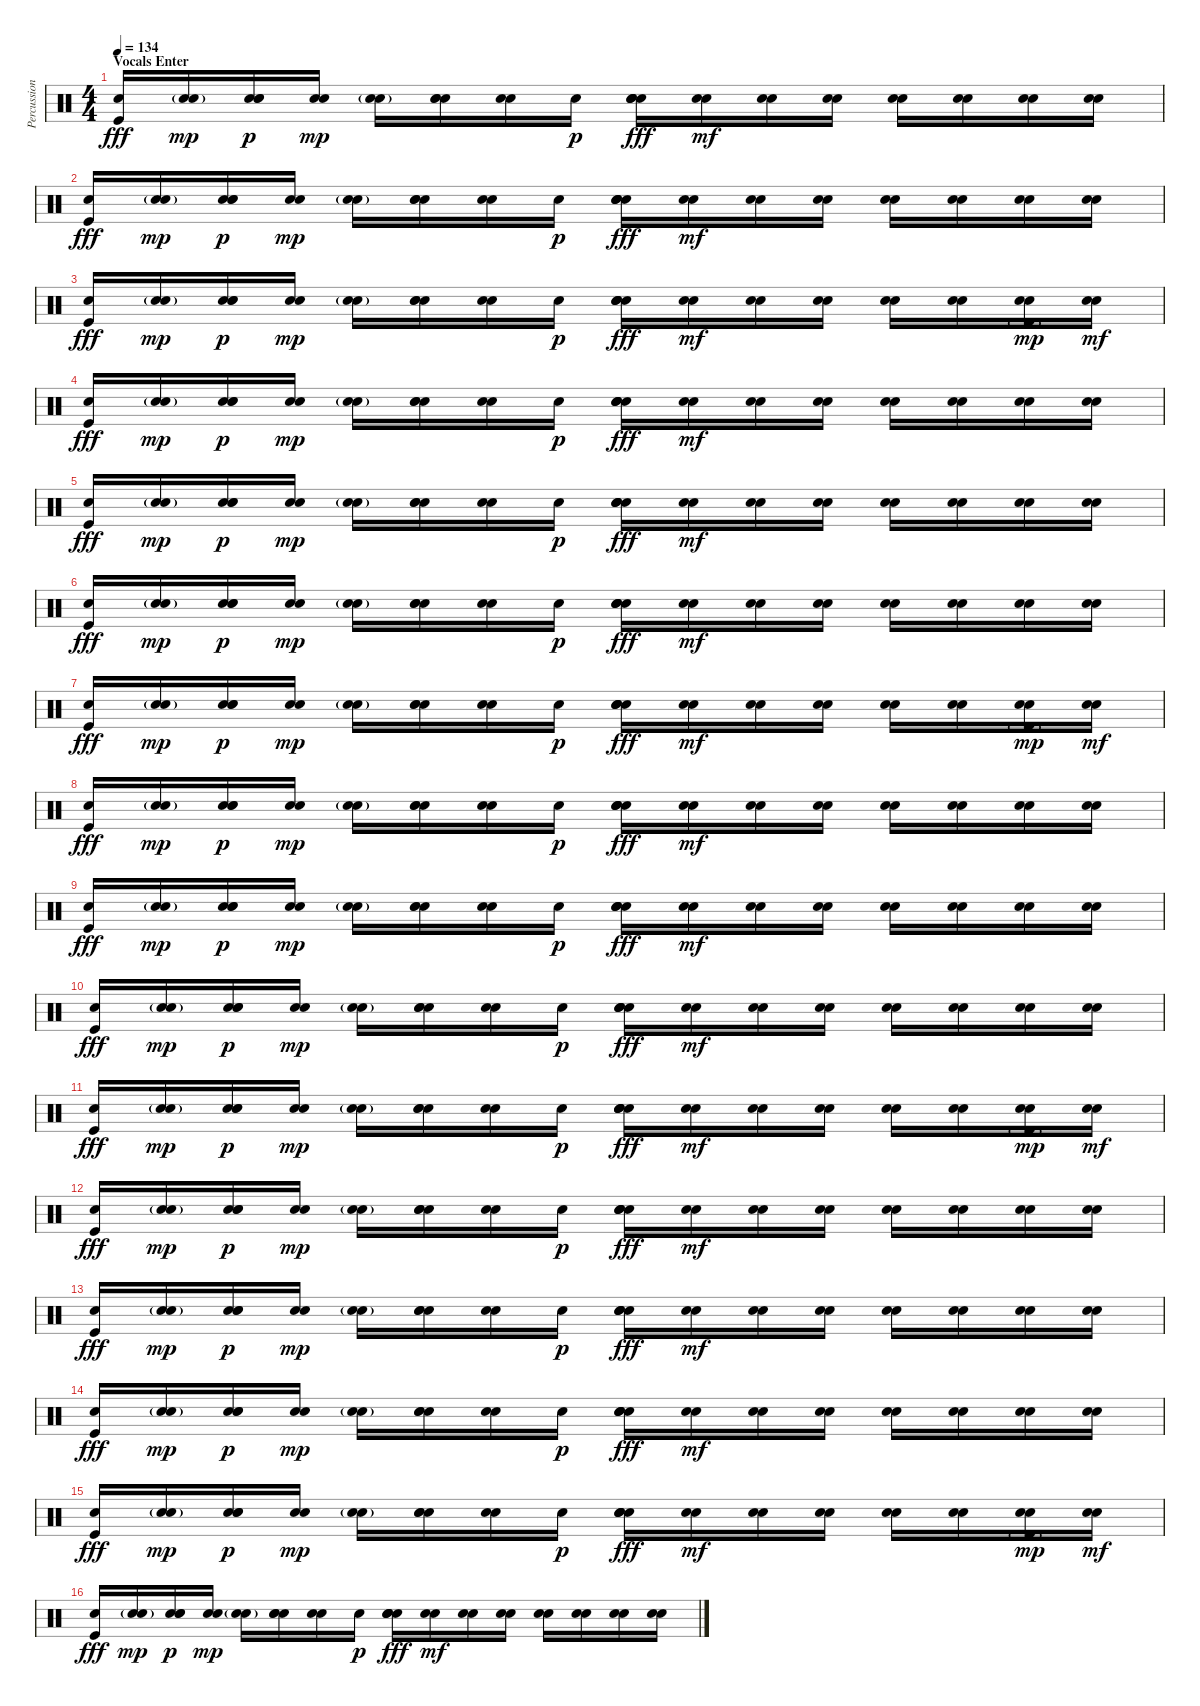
\track ("Percussion" "Percussion") {instrument percussion}
\staff {score}
\articulation defaults
\ts (4 4)
\section ("" "Vocals Enter")
\tempo 134
\clef neutral
\ks c
("Electric Snare (hit)" "Kick (hit)").16{dy fff} ("Electric Snare (hit)" "Electric Snare (hit)"{g}).16{dy mp} ("Electric Snare (hit)" "Electric Snare (hit)" "Snare (hit) 2").16{dy p} ("Electric Snare (hit)" "Snare (hit) 2").16{dy mp} ("Electric Snare (hit)" "Electric Snare (hit)"{g}).16 ("Electric Snare (hit)" "Electric Snare (hit)" "Snare (hit) 2").16 ("Electric Snare (hit)" "Snare (hit) 2").16 "Electric Snare (hit)".16{dy p} ("Electric Snare (hit)" "Snare (hit) 2" "Snare (hit) 2" "Snare (hit) 2").16{dy fff} ("Electric Snare (hit)" "Snare (hit) 2").16{dy mf} ("Electric Snare (hit)" "Snare (hit) 2").16 ("Electric Snare (hit)" "Snare (hit) 2").16 ("Electric Snare (hit)" "Snare (hit) 2").16 ("Electric Snare (hit)" "Snare (hit) 2").16 ("Electric Snare (hit)" "Snare (hit) 2").16 ("Electric Snare (hit)" "Snare (hit) 2").16 |
("Electric Snare (hit)" "Kick (hit)").16{dy fff} ("Electric Snare (hit)" "Electric Snare (hit)"{g}).16{dy mp} ("Electric Snare (hit)" "Electric Snare (hit)" "Snare (hit) 2").16{dy p} ("Electric Snare (hit)" "Snare (hit) 2").16{dy mp} ("Electric Snare (hit)" "Electric Snare (hit)"{g}).16 ("Electric Snare (hit)" "Electric Snare (hit)" "Snare (hit) 2").16 ("Electric Snare (hit)" "Snare (hit) 2").16 "Electric Snare (hit)".16{dy p} ("Electric Snare (hit)" "Snare (hit) 2" "Snare (hit) 2" "Snare (hit) 2").16{dy fff} ("Electric Snare (hit)" "Snare (hit) 2").16{dy mf} ("Electric Snare (hit)" "Snare (hit) 2").16 ("Electric Snare (hit)" "Snare (hit) 2").16 ("Electric Snare (hit)" "Snare (hit) 2").16 ("Electric Snare (hit)" "Snare (hit) 2").16 ("Electric Snare (hit)" "Snare (hit) 2").16 ("Electric Snare (hit)" "Snare (hit) 2").16 |
("Electric Snare (hit)" "Kick (hit)").16{dy fff} ("Electric Snare (hit)" "Electric Snare (hit)"{g}).16{dy mp} ("Electric Snare (hit)" "Electric Snare (hit)" "Snare (hit) 2").16{dy p} ("Electric Snare (hit)" "Snare (hit) 2").16{dy mp} ("Electric Snare (hit)" "Electric Snare (hit)"{g}).16 ("Electric Snare (hit)" "Electric Snare (hit)" "Snare (hit) 2").16 ("Electric Snare (hit)" "Snare (hit) 2").16 "Electric Snare (hit)".16{dy p} ("Electric Snare (hit)" "Snare (hit) 2" "Snare (hit) 2" "Snare (hit) 2").16{dy fff} ("Electric Snare (hit)" "Snare (hit) 2").16{dy mf} ("Electric Snare (hit)" "Snare (hit) 2").16 ("Electric Snare (hit)" "Snare (hit) 2").16 ("Electric Snare (hit)" "Snare (hit) 2").16 ("Electric Snare (hit)" "Snare (hit) 2").16 ("Electric Snare (hit)" "Snare (hit) 2" "Kick (hit)"{g}).16{dy mp} ("Electric Snare (hit)" "Snare (hit) 2").16{dy mf} |
("Electric Snare (hit)" "Kick (hit)").16{dy fff} ("Electric Snare (hit)" "Electric Snare (hit)"{g}).16{dy mp} ("Electric Snare (hit)" "Electric Snare (hit)" "Snare (hit) 2").16{dy p} ("Electric Snare (hit)" "Snare (hit) 2").16{dy mp} ("Electric Snare (hit)" "Electric Snare (hit)"{g}).16 ("Electric Snare (hit)" "Electric Snare (hit)" "Snare (hit) 2").16 ("Electric Snare (hit)" "Snare (hit) 2").16 "Electric Snare (hit)".16{dy p} ("Electric Snare (hit)" "Snare (hit) 2" "Snare (hit) 2" "Snare (hit) 2").16{dy fff} ("Electric Snare (hit)" "Snare (hit) 2").16{dy mf} ("Electric Snare (hit)" "Snare (hit) 2").16 ("Electric Snare (hit)" "Snare (hit) 2").16 ("Electric Snare (hit)" "Snare (hit) 2").16 ("Electric Snare (hit)" "Snare (hit) 2").16 ("Electric Snare (hit)" "Snare (hit) 2").16 ("Electric Snare (hit)" "Snare (hit) 2").16 |
("Electric Snare (hit)" "Kick (hit)").16{dy fff} ("Electric Snare (hit)" "Electric Snare (hit)"{g}).16{dy mp} ("Electric Snare (hit)" "Electric Snare (hit)" "Snare (hit) 2").16{dy p} ("Electric Snare (hit)" "Snare (hit) 2").16{dy mp} ("Electric Snare (hit)" "Electric Snare (hit)"{g}).16 ("Electric Snare (hit)" "Electric Snare (hit)" "Snare (hit) 2").16 ("Electric Snare (hit)" "Snare (hit) 2").16 "Electric Snare (hit)".16{dy p} ("Electric Snare (hit)" "Snare (hit) 2" "Snare (hit) 2" "Snare (hit) 2").16{dy fff} ("Electric Snare (hit)" "Snare (hit) 2").16{dy mf} ("Electric Snare (hit)" "Snare (hit) 2").16 ("Electric Snare (hit)" "Snare (hit) 2").16 ("Electric Snare (hit)" "Snare (hit) 2").16 ("Electric Snare (hit)" "Snare (hit) 2").16 ("Electric Snare (hit)" "Snare (hit) 2").16 ("Electric Snare (hit)" "Snare (hit) 2").16 |
("Electric Snare (hit)" "Kick (hit)").16{dy fff} ("Electric Snare (hit)" "Electric Snare (hit)"{g}).16{dy mp} ("Electric Snare (hit)" "Electric Snare (hit)" "Snare (hit) 2").16{dy p} ("Electric Snare (hit)" "Snare (hit) 2").16{dy mp} ("Electric Snare (hit)" "Electric Snare (hit)"{g}).16 ("Electric Snare (hit)" "Electric Snare (hit)" "Snare (hit) 2").16 ("Electric Snare (hit)" "Snare (hit) 2").16 "Electric Snare (hit)".16{dy p} ("Electric Snare (hit)" "Snare (hit) 2" "Snare (hit) 2" "Snare (hit) 2").16{dy fff} ("Electric Snare (hit)" "Snare (hit) 2").16{dy mf} ("Electric Snare (hit)" "Snare (hit) 2").16 ("Electric Snare (hit)" "Snare (hit) 2").16 ("Electric Snare (hit)" "Snare (hit) 2").16 ("Electric Snare (hit)" "Snare (hit) 2").16 ("Electric Snare (hit)" "Snare (hit) 2").16 ("Electric Snare (hit)" "Snare (hit) 2").16 |
("Electric Snare (hit)" "Kick (hit)").16{dy fff} ("Electric Snare (hit)" "Electric Snare (hit)"{g}).16{dy mp} ("Electric Snare (hit)" "Electric Snare (hit)" "Snare (hit) 2").16{dy p} ("Electric Snare (hit)" "Snare (hit) 2").16{dy mp} ("Electric Snare (hit)" "Electric Snare (hit)"{g}).16 ("Electric Snare (hit)" "Electric Snare (hit)" "Snare (hit) 2").16 ("Electric Snare (hit)" "Snare (hit) 2").16 "Electric Snare (hit)".16{dy p} ("Electric Snare (hit)" "Snare (hit) 2" "Snare (hit) 2" "Snare (hit) 2").16{dy fff} ("Electric Snare (hit)" "Snare (hit) 2").16{dy mf} ("Electric Snare (hit)" "Snare (hit) 2").16 ("Electric Snare (hit)" "Snare (hit) 2").16 ("Electric Snare (hit)" "Snare (hit) 2").16 ("Electric Snare (hit)" "Snare (hit) 2").16 ("Electric Snare (hit)" "Snare (hit) 2" "Kick (hit)"{g}).16{dy mp} ("Electric Snare (hit)" "Snare (hit) 2").16{dy mf} |
("Electric Snare (hit)" "Kick (hit)").16{dy fff} ("Electric Snare (hit)" "Electric Snare (hit)"{g}).16{dy mp} ("Electric Snare (hit)" "Electric Snare (hit)" "Snare (hit) 2").16{dy p} ("Electric Snare (hit)" "Snare (hit) 2").16{dy mp} ("Electric Snare (hit)" "Electric Snare (hit)"{g}).16 ("Electric Snare (hit)" "Electric Snare (hit)" "Snare (hit) 2").16 ("Electric Snare (hit)" "Snare (hit) 2").16 "Electric Snare (hit)".16{dy p} ("Electric Snare (hit)" "Snare (hit) 2" "Snare (hit) 2" "Snare (hit) 2").16{dy fff} ("Electric Snare (hit)" "Snare (hit) 2").16{dy mf} ("Electric Snare (hit)" "Snare (hit) 2").16 ("Electric Snare (hit)" "Snare (hit) 2").16 ("Electric Snare (hit)" "Snare (hit) 2").16 ("Electric Snare (hit)" "Snare (hit) 2").16 ("Electric Snare (hit)" "Snare (hit) 2").16 ("Electric Snare (hit)" "Snare (hit) 2").16 |
("Electric Snare (hit)" "Kick (hit)").16{dy fff} ("Electric Snare (hit)" "Electric Snare (hit)"{g}).16{dy mp} ("Electric Snare (hit)" "Electric Snare (hit)" "Snare (hit) 2").16{dy p} ("Electric Snare (hit)" "Snare (hit) 2").16{dy mp} ("Electric Snare (hit)" "Electric Snare (hit)"{g}).16 ("Electric Snare (hit)" "Electric Snare (hit)" "Snare (hit) 2").16 ("Electric Snare (hit)" "Snare (hit) 2").16 "Electric Snare (hit)".16{dy p} ("Electric Snare (hit)" "Snare (hit) 2" "Snare (hit) 2" "Snare (hit) 2").16{dy fff} ("Electric Snare (hit)" "Snare (hit) 2").16{dy mf} ("Electric Snare (hit)" "Snare (hit) 2").16 ("Electric Snare (hit)" "Snare (hit) 2").16 ("Electric Snare (hit)" "Snare (hit) 2").16 ("Electric Snare (hit)" "Snare (hit) 2").16 ("Electric Snare (hit)" "Snare (hit) 2").16 ("Electric Snare (hit)" "Snare (hit) 2").16 |
("Electric Snare (hit)" "Kick (hit)").16{dy fff} ("Electric Snare (hit)" "Electric Snare (hit)"{g}).16{dy mp} ("Electric Snare (hit)" "Electric Snare (hit)" "Snare (hit) 2").16{dy p} ("Electric Snare (hit)" "Snare (hit) 2").16{dy mp} ("Electric Snare (hit)" "Electric Snare (hit)"{g}).16 ("Electric Snare (hit)" "Electric Snare (hit)" "Snare (hit) 2").16 ("Electric Snare (hit)" "Snare (hit) 2").16 "Electric Snare (hit)".16{dy p} ("Electric Snare (hit)" "Snare (hit) 2" "Snare (hit) 2" "Snare (hit) 2").16{dy fff} ("Electric Snare (hit)" "Snare (hit) 2").16{dy mf} ("Electric Snare (hit)" "Snare (hit) 2").16 ("Electric Snare (hit)" "Snare (hit) 2").16 ("Electric Snare (hit)" "Snare (hit) 2").16 ("Electric Snare (hit)" "Snare (hit) 2").16 ("Electric Snare (hit)" "Snare (hit) 2").16 ("Electric Snare (hit)" "Snare (hit) 2").16 |
("Electric Snare (hit)" "Kick (hit)").16{dy fff} ("Electric Snare (hit)" "Electric Snare (hit)"{g}).16{dy mp} ("Electric Snare (hit)" "Electric Snare (hit)" "Snare (hit) 2").16{dy p} ("Electric Snare (hit)" "Snare (hit) 2").16{dy mp} ("Electric Snare (hit)" "Electric Snare (hit)"{g}).16 ("Electric Snare (hit)" "Electric Snare (hit)" "Snare (hit) 2").16 ("Electric Snare (hit)" "Snare (hit) 2").16 "Electric Snare (hit)".16{dy p} ("Electric Snare (hit)" "Snare (hit) 2" "Snare (hit) 2" "Snare (hit) 2").16{dy fff} ("Electric Snare (hit)" "Snare (hit) 2").16{dy mf} ("Electric Snare (hit)" "Snare (hit) 2").16 ("Electric Snare (hit)" "Snare (hit) 2").16 ("Electric Snare (hit)" "Snare (hit) 2").16 ("Electric Snare (hit)" "Snare (hit) 2").16 ("Electric Snare (hit)" "Snare (hit) 2" "Kick (hit)"{g}).16{dy mp} ("Electric Snare (hit)" "Snare (hit) 2").16{dy mf} |
("Electric Snare (hit)" "Kick (hit)").16{dy fff} ("Electric Snare (hit)" "Electric Snare (hit)"{g}).16{dy mp} ("Electric Snare (hit)" "Electric Snare (hit)" "Snare (hit) 2").16{dy p} ("Electric Snare (hit)" "Snare (hit) 2").16{dy mp} ("Electric Snare (hit)" "Electric Snare (hit)"{g}).16 ("Electric Snare (hit)" "Electric Snare (hit)" "Snare (hit) 2").16 ("Electric Snare (hit)" "Snare (hit) 2").16 "Electric Snare (hit)".16{dy p} ("Electric Snare (hit)" "Snare (hit) 2" "Snare (hit) 2" "Snare (hit) 2").16{dy fff} ("Electric Snare (hit)" "Snare (hit) 2").16{dy mf} ("Electric Snare (hit)" "Snare (hit) 2").16 ("Electric Snare (hit)" "Snare (hit) 2").16 ("Electric Snare (hit)" "Snare (hit) 2").16 ("Electric Snare (hit)" "Snare (hit) 2").16 ("Electric Snare (hit)" "Snare (hit) 2").16 ("Electric Snare (hit)" "Snare (hit) 2").16 |
("Electric Snare (hit)" "Kick (hit)").16{dy fff} ("Electric Snare (hit)" "Electric Snare (hit)"{g}).16{dy mp} ("Electric Snare (hit)" "Electric Snare (hit)" "Snare (hit) 2").16{dy p} ("Electric Snare (hit)" "Snare (hit) 2").16{dy mp} ("Electric Snare (hit)" "Electric Snare (hit)"{g}).16 ("Electric Snare (hit)" "Electric Snare (hit)" "Snare (hit) 2").16 ("Electric Snare (hit)" "Snare (hit) 2").16 "Electric Snare (hit)".16{dy p} ("Electric Snare (hit)" "Snare (hit) 2" "Snare (hit) 2" "Snare (hit) 2").16{dy fff} ("Electric Snare (hit)" "Snare (hit) 2").16{dy mf} ("Electric Snare (hit)" "Snare (hit) 2").16 ("Electric Snare (hit)" "Snare (hit) 2").16 ("Electric Snare (hit)" "Snare (hit) 2").16 ("Electric Snare (hit)" "Snare (hit) 2").16 ("Electric Snare (hit)" "Snare (hit) 2").16 ("Electric Snare (hit)" "Snare (hit) 2").16 |
("Electric Snare (hit)" "Kick (hit)").16{dy fff} ("Electric Snare (hit)" "Electric Snare (hit)"{g}).16{dy mp} ("Electric Snare (hit)" "Electric Snare (hit)" "Snare (hit) 2").16{dy p} ("Electric Snare (hit)" "Snare (hit) 2").16{dy mp} ("Electric Snare (hit)" "Electric Snare (hit)"{g}).16 ("Electric Snare (hit)" "Electric Snare (hit)" "Snare (hit) 2").16 ("Electric Snare (hit)" "Snare (hit) 2").16 "Electric Snare (hit)".16{dy p} ("Electric Snare (hit)" "Snare (hit) 2" "Snare (hit) 2" "Snare (hit) 2").16{dy fff} ("Electric Snare (hit)" "Snare (hit) 2").16{dy mf} ("Electric Snare (hit)" "Snare (hit) 2").16 ("Electric Snare (hit)" "Snare (hit) 2").16 ("Electric Snare (hit)" "Snare (hit) 2").16 ("Electric Snare (hit)" "Snare (hit) 2").16 ("Electric Snare (hit)" "Snare (hit) 2").16 ("Electric Snare (hit)" "Snare (hit) 2").16 |
("Electric Snare (hit)" "Kick (hit)").16{dy fff} ("Electric Snare (hit)" "Electric Snare (hit)"{g}).16{dy mp} ("Electric Snare (hit)" "Electric Snare (hit)" "Snare (hit) 2").16{dy p} ("Electric Snare (hit)" "Snare (hit) 2").16{dy mp} ("Electric Snare (hit)" "Electric Snare (hit)"{g}).16 ("Electric Snare (hit)" "Electric Snare (hit)" "Snare (hit) 2").16 ("Electric Snare (hit)" "Snare (hit) 2").16 "Electric Snare (hit)".16{dy p} ("Electric Snare (hit)" "Snare (hit) 2" "Snare (hit) 2" "Snare (hit) 2").16{dy fff} ("Electric Snare (hit)" "Snare (hit) 2").16{dy mf} ("Electric Snare (hit)" "Snare (hit) 2").16 ("Electric Snare (hit)" "Snare (hit) 2").16 ("Electric Snare (hit)" "Snare (hit) 2").16 ("Electric Snare (hit)" "Snare (hit) 2").16 ("Electric Snare (hit)" "Snare (hit) 2" "Kick (hit)"{g}).16{dy mp} ("Electric Snare (hit)" "Snare (hit) 2").16{dy mf} |
("Electric Snare (hit)" "Kick (hit)").16{dy fff} ("Electric Snare (hit)" "Electric Snare (hit)"{g}).16{dy mp} ("Electric Snare (hit)" "Electric Snare (hit)" "Snare (hit) 2").16{dy p} ("Electric Snare (hit)" "Snare (hit) 2").16{dy mp} ("Electric Snare (hit)" "Electric Snare (hit)"{g}).16 ("Electric Snare (hit)" "Electric Snare (hit)" "Snare (hit) 2").16 ("Electric Snare (hit)" "Snare (hit) 2").16 "Electric Snare (hit)".16{dy p} ("Electric Snare (hit)" "Snare (hit) 2" "Snare (hit) 2" "Snare (hit) 2").16{dy fff} ("Electric Snare (hit)" "Snare (hit) 2").16{dy mf} ("Electric Snare (hit)" "Snare (hit) 2").16 ("Electric Snare (hit)" "Snare (hit) 2").16 ("Electric Snare (hit)" "Snare (hit) 2").16 ("Electric Snare (hit)" "Snare (hit) 2").16 ("Electric Snare (hit)" "Snare (hit) 2").16 ("Electric Snare (hit)" "Snare (hit) 2").16
